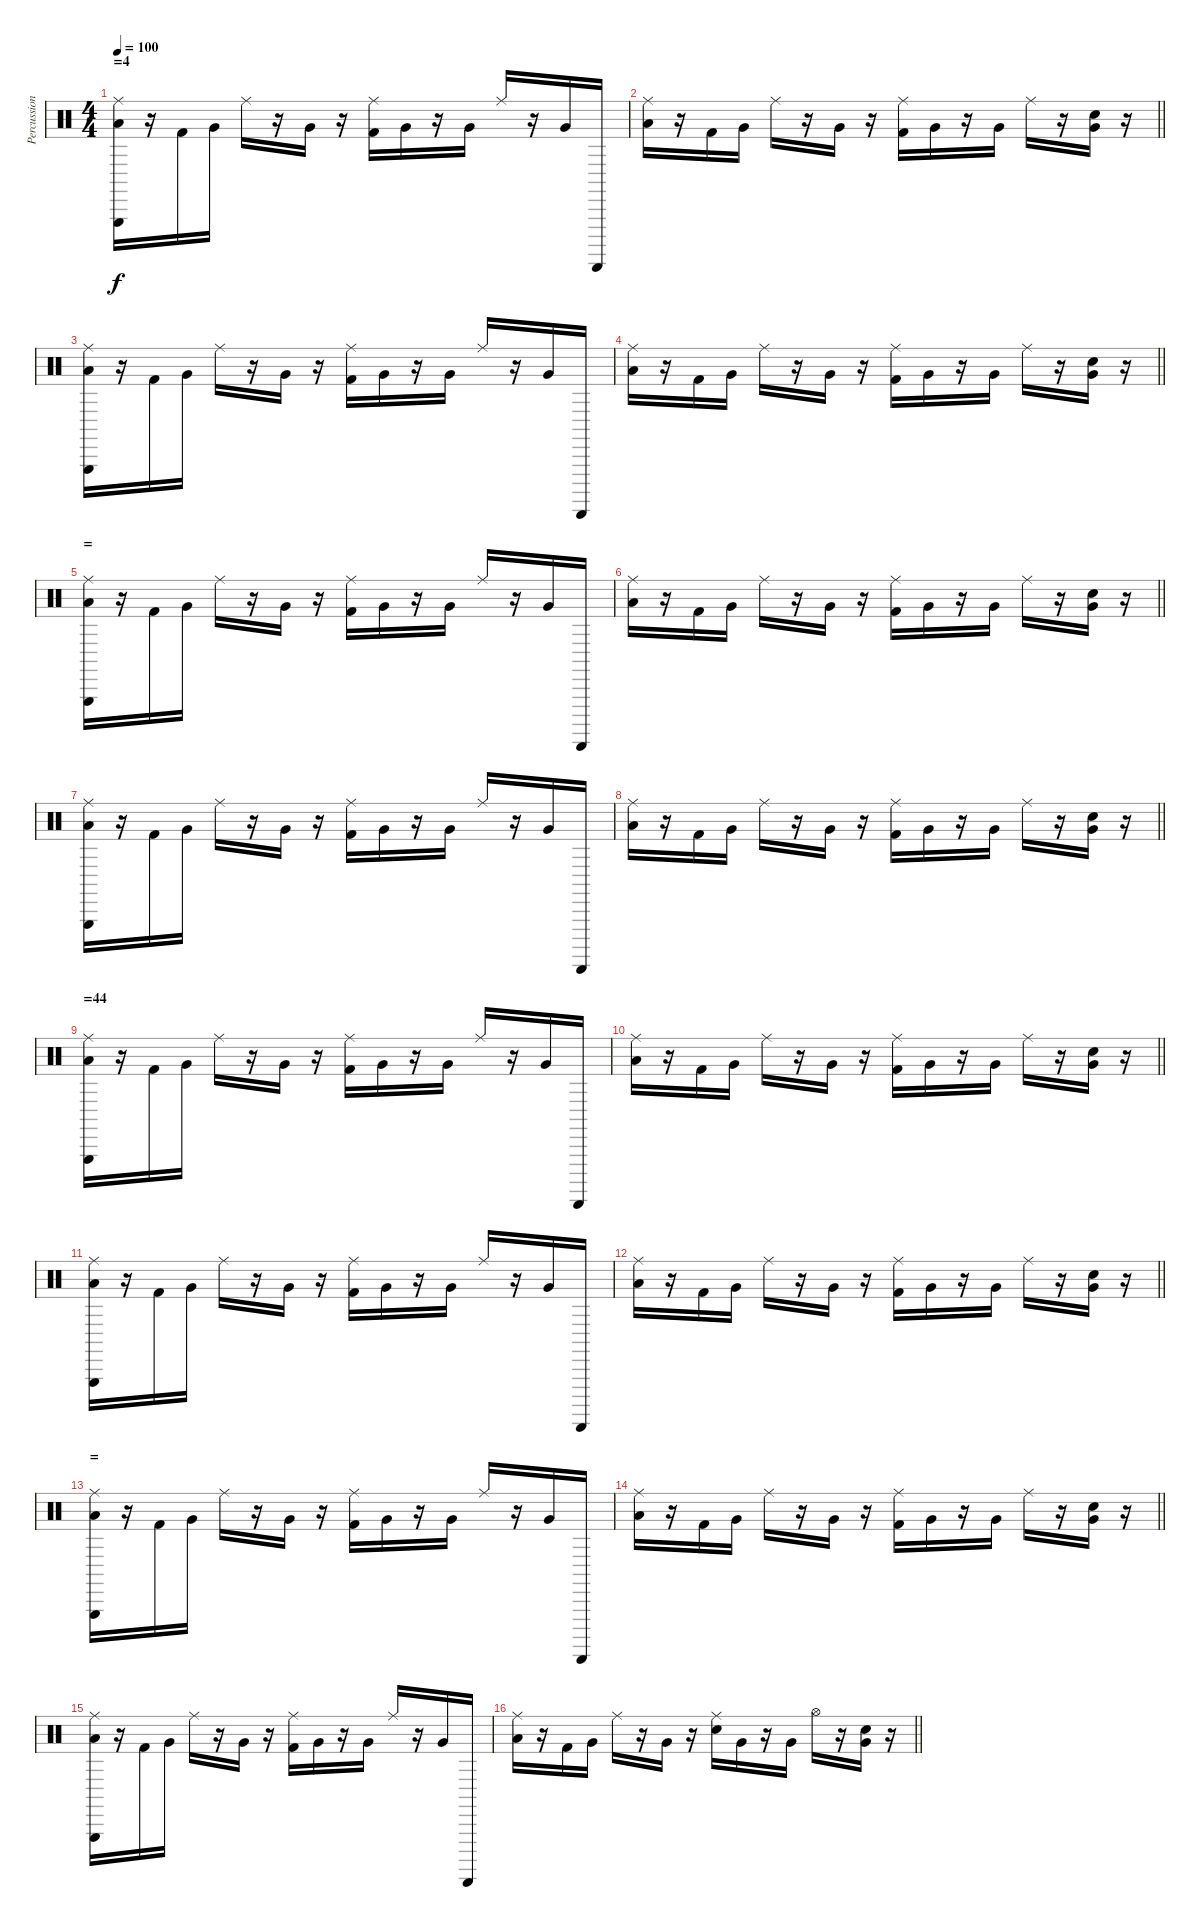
\track ("Percussion" "Percussion") {instrument percussion}
\staff {score}
\articulation defaults
\ts (4 4)
\section ("" "=4")
\tempo 100
\clef neutral
\ks c
("Low Floor Tom (hit)" "Triangle (hit)" "Ride (middle)").16{dy f} r.16 "Kick (hit) 2".16 "Very Low Tom (hit)".16 "Ride (middle)".16 r.16 "Very Low Tom (hit)".16 r.16 ("Kick (hit) 2" "Ride (middle)").16 "Very Low Tom (hit)".16 r.16 "Very Low Tom (hit)".16 "Ride (middle)".16 r.16 "Very Low Tom (hit)".16 "Guiro (scrap-return)".16 |
\barLineRight lightlight
("Low Floor Tom (hit)" "Ride (middle)").16 r.16 "Kick (hit) 2".16 "Very Low Tom (hit)".16 "Ride (middle)".16 r.16 "Very Low Tom (hit)".16 r.16 ("Kick (hit) 2" "Ride (middle)").16 "Very Low Tom (hit)".16 r.16 "Very Low Tom (hit)".16 "Ride (middle)".16 r.16 ("Very Low Tom (hit)" "Electric Snare (hit)").16 r.16 |
("Low Floor Tom (hit)" "Triangle (hit)" "Ride (middle)").16 r.16 "Kick (hit) 2".16 "Very Low Tom (hit)".16 "Ride (middle)".16 r.16 "Very Low Tom (hit)".16 r.16 ("Kick (hit) 2" "Ride (middle)").16 "Very Low Tom (hit)".16 r.16 "Very Low Tom (hit)".16 "Ride (middle)".16 r.16 "Very Low Tom (hit)".16 "Guiro (scrap-return)".16 |
\barLineRight lightlight
("Low Floor Tom (hit)" "Ride (middle)").16 r.16 "Kick (hit) 2".16 "Very Low Tom (hit)".16 "Ride (middle)".16 r.16 "Very Low Tom (hit)".16 r.16 ("Kick (hit) 2" "Ride (middle)").16 "Very Low Tom (hit)".16 r.16 "Very Low Tom (hit)".16 "Ride (middle)".16 r.16 ("Very Low Tom (hit)" "Electric Snare (hit)").16 r.16 |
\section ("" "=")
("Low Floor Tom (hit)" "Triangle (hit)" "Ride (middle)").16 r.16 "Kick (hit) 2".16 "Very Low Tom (hit)".16 "Ride (middle)".16 r.16 "Very Low Tom (hit)".16 r.16 ("Kick (hit) 2" "Ride (middle)").16 "Very Low Tom (hit)".16 r.16 "Very Low Tom (hit)".16 "Ride (middle)".16 r.16 "Very Low Tom (hit)".16 "Guiro (scrap-return)".16 |
\barLineRight lightlight
("Low Floor Tom (hit)" "Ride (middle)").16 r.16 "Kick (hit) 2".16 "Very Low Tom (hit)".16 "Ride (middle)".16 r.16 "Very Low Tom (hit)".16 r.16 ("Kick (hit) 2" "Ride (middle)").16 "Very Low Tom (hit)".16 r.16 "Very Low Tom (hit)".16 "Ride (middle)".16 r.16 ("Very Low Tom (hit)" "Electric Snare (hit)").16 r.16 |
("Low Floor Tom (hit)" "Triangle (hit)" "Ride (middle)").16 r.16 "Kick (hit) 2".16 "Very Low Tom (hit)".16 "Ride (middle)".16 r.16 "Very Low Tom (hit)".16 r.16 ("Kick (hit) 2" "Ride (middle)").16 "Very Low Tom (hit)".16 r.16 "Very Low Tom (hit)".16 "Ride (middle)".16 r.16 "Very Low Tom (hit)".16 "Guiro (scrap-return)".16 |
\barLineRight lightlight
("Low Floor Tom (hit)" "Ride (middle)").16 r.16 "Kick (hit) 2".16 "Very Low Tom (hit)".16 "Ride (middle)".16 r.16 "Very Low Tom (hit)".16 r.16 ("Kick (hit) 2" "Ride (middle)").16 "Very Low Tom (hit)".16 r.16 "Very Low Tom (hit)".16 "Ride (middle)".16 r.16 ("Very Low Tom (hit)" "Electric Snare (hit)").16 r.16 |
\section ("" "=44")
("Low Floor Tom (hit)" "Triangle (hit)" "Ride (middle)").16 r.16 "Kick (hit) 2".16 "Very Low Tom (hit)".16 "Ride (middle)".16 r.16 "Very Low Tom (hit)".16 r.16 ("Kick (hit) 2" "Ride (middle)").16 "Very Low Tom (hit)".16 r.16 "Very Low Tom (hit)".16 "Ride (middle)".16 r.16 "Very Low Tom (hit)".16 "Guiro (scrap-return)".16 |
\barLineRight lightlight
("Low Floor Tom (hit)" "Ride (middle)").16 r.16 "Kick (hit) 2".16 "Very Low Tom (hit)".16 "Ride (middle)".16 r.16 "Very Low Tom (hit)".16 r.16 ("Kick (hit) 2" "Ride (middle)").16 "Very Low Tom (hit)".16 r.16 "Very Low Tom (hit)".16 "Ride (middle)".16 r.16 ("Very Low Tom (hit)" "Electric Snare (hit)").16 r.16 |
("Low Floor Tom (hit)" "Triangle (hit)" "Ride (middle)").16 r.16 "Kick (hit) 2".16 "Very Low Tom (hit)".16 "Ride (middle)".16 r.16 "Very Low Tom (hit)".16 r.16 ("Kick (hit) 2" "Ride (middle)").16 "Very Low Tom (hit)".16 r.16 "Very Low Tom (hit)".16 "Ride (middle)".16 r.16 "Very Low Tom (hit)".16 "Guiro (scrap-return)".16 |
\barLineRight lightlight
("Low Floor Tom (hit)" "Ride (middle)").16 r.16 "Kick (hit) 2".16 "Very Low Tom (hit)".16 "Ride (middle)".16 r.16 "Very Low Tom (hit)".16 r.16 ("Kick (hit) 2" "Ride (middle)").16 "Very Low Tom (hit)".16 r.16 "Very Low Tom (hit)".16 "Ride (middle)".16 r.16 ("Very Low Tom (hit)" "Electric Snare (hit)").16 r.16 |
\section ("" "=")
("Low Floor Tom (hit)" "Triangle (hit)" "Ride (middle)").16 r.16 "Kick (hit) 2".16 "Very Low Tom (hit)".16 "Ride (middle)".16 r.16 "Very Low Tom (hit)".16 r.16 ("Kick (hit) 2" "Ride (middle)").16 "Very Low Tom (hit)".16 r.16 "Very Low Tom (hit)".16 "Ride (middle)".16 r.16 "Very Low Tom (hit)".16 "Guiro (scrap-return)".16 |
\barLineRight lightlight
("Low Floor Tom (hit)" "Ride (middle)").16 r.16 "Kick (hit) 2".16 "Very Low Tom (hit)".16 "Ride (middle)".16 r.16 "Very Low Tom (hit)".16 r.16 ("Kick (hit) 2" "Ride (middle)").16 "Very Low Tom (hit)".16 r.16 "Very Low Tom (hit)".16 "Ride (middle)".16 r.16 ("Very Low Tom (hit)" "Electric Snare (hit)").16 r.16 |
("Low Floor Tom (hit)" "Triangle (hit)" "Ride (middle)").16 r.16 "Kick (hit) 2".16 "Very Low Tom (hit)".16 "Ride (middle)".16 r.16 "Very Low Tom (hit)".16 r.16 ("Kick (hit) 2" "Ride (middle)").16 "Very Low Tom (hit)".16 r.16 "Very Low Tom (hit)".16 "Ride (middle)".16 r.16 "Very Low Tom (hit)".16 "Guiro (scrap-return)".16 |
\barLineRight lightlight
("Low Floor Tom (hit)" "Ride (middle)").16 r.16 "Kick (hit) 2".16 "Very Low Tom (hit)".16 "Ride (middle)".16 r.16 "Very Low Tom (hit)".16 r.16 ("Electric Snare (hit)" "Ride (middle)").16 "Very Low Tom (hit)".16 r.16 "Very Low Tom (hit)".16 "Hi-Hat (open)".16 r.16 ("Very Low Tom (hit)" "Electric Snare (hit)").16 r.16
